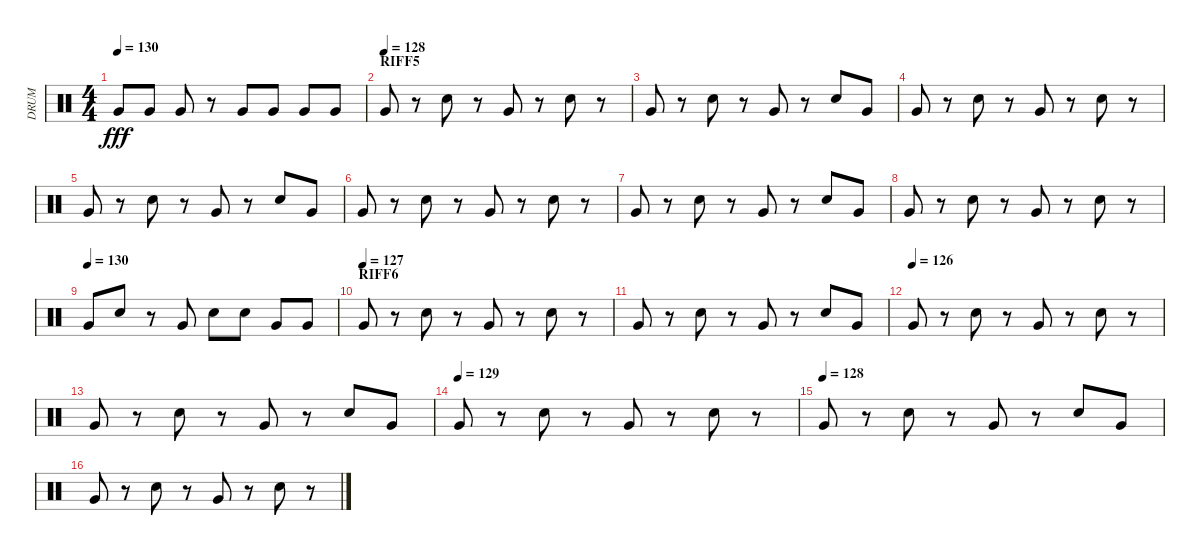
\track ("DRUM" "DRUM") {instrument percussion}
\staff {score}
\articulation defaults
\ts (4 4)
\tempo 130
\clef neutral
\ks c "Very Low Tom (hit)".8{dy fff} "Very Low Tom (hit)".8 "Very Low Tom (hit)".8
r.8 "Very Low Tom (hit)".8 "Very Low Tom (hit)".8 "Very Low Tom (hit)".8 "Very Low Tom (hit)".8 |
\section ("" "RIFF5")
\tempo (128)
"Very Low Tom (hit)".8 r.8 "Electric Snare (hit)".8 r.8 "Very Low Tom (hit)".8 r.8 "Electric Snare (hit)".8 r.8 |
"Very Low Tom (hit)".8 r.8 "Electric Snare (hit)".8 r.8 "Very Low Tom (hit)".8 r.8 "Electric Snare (hit)".8 "Very Low Tom (hit)".8 |
"Very Low Tom (hit)".8 r.8 "Electric Snare (hit)".8 r.8 "Very Low Tom (hit)".8 r.8 "Electric Snare (hit)".8 r.8 |
"Very Low Tom (hit)".8 r.8 "Electric Snare (hit)".8 r.8 "Very Low Tom (hit)".8 r.8 "Electric Snare (hit)".8 "Very Low Tom (hit)".8 |
"Very Low Tom (hit)".8 r.8 "Electric Snare (hit)".8 r.8 "Very Low Tom (hit)".8 r.8 "Electric Snare (hit)".8 r.8 |
"Very Low Tom (hit)".8 r.8 "Electric Snare (hit)".8 r.8 "Very Low Tom (hit)".8 r.8 "Electric Snare (hit)".8 "Very Low Tom (hit)".8 |
"Very Low Tom (hit)".8 r.8 "Electric Snare (hit)".8 r.8 "Very Low Tom (hit)".8 r.8 "Electric Snare (hit)".8 r.8 |
\tempo (130)
"Very Low Tom (hit)".8 "Electric Snare (hit)".8 r.8 "Very Low Tom (hit)".8 "Electric Snare (hit)".8 "Electric Snare (hit)".8 "Very Low Tom (hit)".8 "Very Low Tom (hit)".8 |
\section ("" "RIFF6")
\tempo (127)
"Very Low Tom (hit)".8 r.8 "Electric Snare (hit)".8 r.8 "Very Low Tom (hit)".8 r.8 "Electric Snare (hit)".8 r.8 |
"Very Low Tom (hit)".8 r.8 "Electric Snare (hit)".8 r.8 "Very Low Tom (hit)".8 r.8 "Electric Snare (hit)".8 "Very Low Tom (hit)".8 |
\tempo (126)
"Very Low Tom (hit)".8 r.8 "Electric Snare (hit)".8 r.8 "Very Low Tom (hit)".8 r.8 "Electric Snare (hit)".8 r.8 |
"Very Low Tom (hit)".8 r.8 "Electric Snare (hit)".8 r.8 "Very Low Tom (hit)".8 r.8 "Electric Snare (hit)".8 "Very Low Tom (hit)".8 |
\tempo (129)
"Very Low Tom (hit)".8 r.8 "Electric Snare (hit)".8 r.8 "Very Low Tom (hit)".8 r.8 "Electric Snare (hit)".8 r.8 |
\tempo (128)
"Very Low Tom (hit)".8 r.8 "Electric Snare (hit)".8 r.8 "Very Low Tom (hit)".8 r.8 "Electric Snare (hit)".8 "Very Low Tom (hit)".8 |
"Very Low Tom (hit)".8 r.8 "Electric Snare (hit)".8 r.8 "Very Low Tom (hit)".8 r.8 "Electric Snare (hit)".8 r.8
